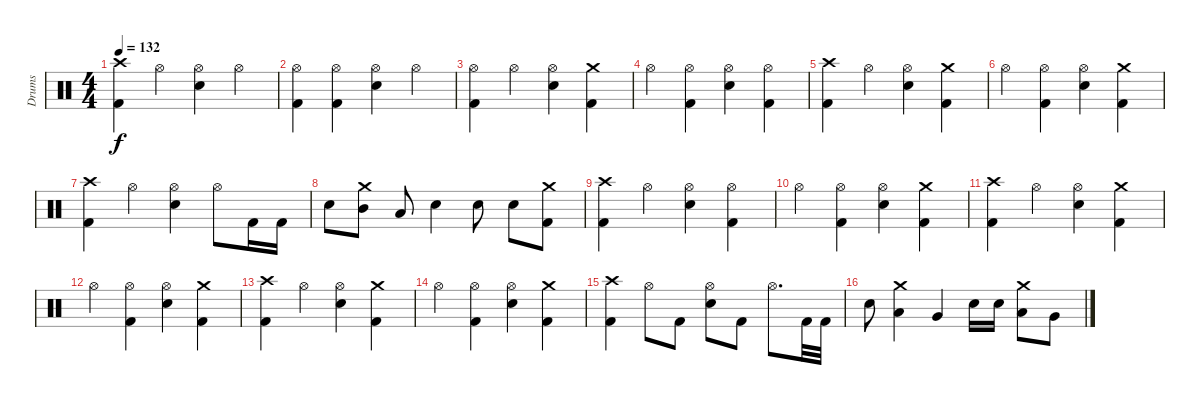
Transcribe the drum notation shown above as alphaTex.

\track ("Drums" "Drums") {instrument percussion}
\staff {score}
\articulation defaults
\ts (4 4)
\tempo 132
\clef neutral
\ks c
("Crash high (hit)" "Kick (hit) 2").4{dy f} "Hi-Hat (open)".4 ("Hi-Hat (open)" "Electric Snare (hit)").4 "Hi-Hat (open)".4 |
("Hi-Hat (open)" "Kick (hit) 2").4 ("Hi-Hat (open)" "Kick (hit) 2").4 ("Hi-Hat (open)" "Electric Snare (hit)").4 "Hi-Hat (open)".4 |
("Hi-Hat (open)" "Kick (hit) 2").4 "Hi-Hat (open)".4 ("Hi-Hat (open)" "Electric Snare (hit)").4 ("Crash medium (hit)" "Kick (hit) 2").4 |
"Hi-Hat (open)".4 ("Hi-Hat (open)" "Kick (hit) 2").4 ("Hi-Hat (open)" "Electric Snare (hit)").4 ("Hi-Hat (open)" "Kick (hit) 2").4 |
("Crash high (hit)" "Kick (hit) 2").4 "Hi-Hat (open)".4 ("Hi-Hat (open)" "Electric Snare (hit)").4 ("Crash medium (hit)" "Kick (hit) 2").4 |
"Hi-Hat (open)".4 ("Hi-Hat (open)" "Kick (hit) 2").4 ("Hi-Hat (open)" "Electric Snare (hit)").4 ("Crash medium (hit)" "Kick (hit) 2").4 |
("Crash high (hit)" "Kick (hit) 2").4 "Hi-Hat (open)".4 ("Hi-Hat (open)" "Electric Snare (hit)").4 "Hi-Hat (open)".8 "Kick (hit) 2".16 "Kick (hit) 2".16 |
"Electric Snare (hit)".8 ("Crash medium (hit)" "Mid Tom (hit)").8 "Low Tom (hit)".8 "Electric Snare (hit)".4 "Electric Snare (hit)".8 "Electric Snare (hit)".8 ("Crash medium (hit)" "Kick (hit) 2").8 |
("Crash high (hit)" "Kick (hit) 2").4 "Hi-Hat (open)".4 ("Hi-Hat (open)" "Electric Snare (hit)").4 ("Hi-Hat (open)" "Kick (hit) 2").4 |
"Hi-Hat (open)".4 ("Hi-Hat (open)" "Kick (hit) 2").4 ("Hi-Hat (open)" "Electric Snare (hit)").4 ("Crash medium (hit)" "Kick (hit) 2").4 |
("Crash high (hit)" "Kick (hit) 2").4 "Hi-Hat (open)".4 ("Hi-Hat (open)" "Electric Snare (hit)").4 ("Crash medium (hit)" "Kick (hit) 2").4 |
"Hi-Hat (open)".4 ("Hi-Hat (open)" "Kick (hit) 2").4 ("Hi-Hat (open)" "Electric Snare (hit)").4 ("Crash medium (hit)" "Kick (hit) 2").4 |
("Crash high (hit)" "Kick (hit) 2").4 "Hi-Hat (open)".4 ("Hi-Hat (open)" "Electric Snare (hit)").4 ("Crash medium (hit)" "Kick (hit) 2").4 |
"Hi-Hat (open)".4 ("Hi-Hat (open)" "Kick (hit) 2").4 ("Hi-Hat (open)" "Electric Snare (hit)").4 ("Crash medium (hit)" "Kick (hit) 2").4 |
("Crash high (hit)" "Kick (hit) 2").4 "Hi-Hat (open)".8 "Kick (hit) 2".8 ("Hi-Hat (open)" "Electric Snare (hit)").8 "Kick (hit) 2".8 "Hi-Hat (open)".8{d} "Kick (hit) 2".32 "Kick (hit) 2".32 |
"Electric Snare (hit)".8 ("Crash medium (hit)" "Low Tom (hit)").4 "Very Low Tom (hit)".4 "Electric Snare (hit)".16 "Electric Snare (hit)".16 ("Crash medium (hit)" "Low Tom (hit)").8 "Very Low Tom (hit)".8
